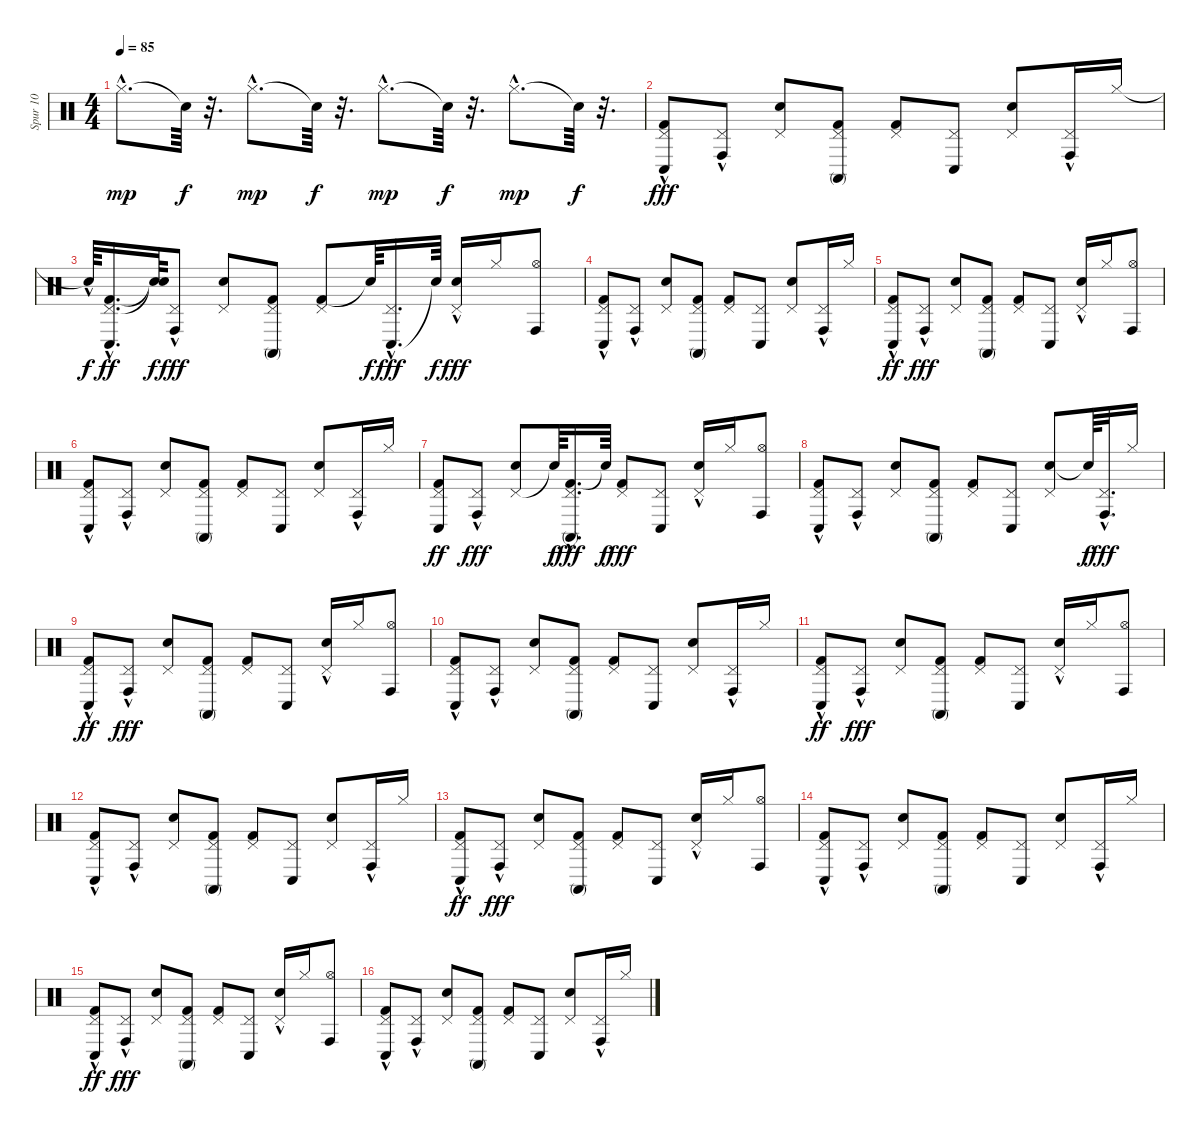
\track ("Spur 10" "Spur 10") {instrument percussion}
\staff {score}
\articulation defaults
\ts (4 4)
\tempo 85
\clef neutral
\ks c "Hi-Hat (closed)"{hac}.8{d dy mp} "Snare (hit)"{t}.64{dy f}
r.32{d} "Hi-Hat (closed)"{hac}.8{d dy mp} "Snare (hit)"{t}.64{dy f} r.32{d} "Hi-Hat (closed)"{hac}.8{d dy mp} "Snare (hit)"{t}.64{dy f} r.32{d} "Hi-Hat (closed)"{hac}.8{d dy mp} "Snare (hit)"{t}.64{dy f} r.32{d} |
("Kick (hit) 2" "Conga low (hit)" "Pedal Hi-Hat (hit)"{hac}).8{dy fff} ("Conga high (hit)" "Pedal Hi-Hat (hit)"{hac}).8 ("Snare (hit) 2" "Pedal Hi-Hat (hit)").8 ("Kick (hit) 2" "Conga high (mute)" "Pedal Hi-Hat (hit)").8 ("Kick (hit) 2" "Pedal Hi-Hat (hit)").8 ("Conga low (hit)" "Pedal Hi-Hat (hit)").8 ("Snare (hit) 2" "Pedal Hi-Hat (hit)").8 ("Conga high (hit)" "Pedal Hi-Hat (hit)"{hac}).16 "Hi-Hat (closed)".16 |
"Snare (hit)"{hac t}.64{dy f} ("Pedal Hi-Hat (hit)" "Kick (hit) 2"{hac} "Conga low (hit)"{hac}).16{d dy ff} ("Snare (hit)"{t} "Snare (hit)"{t}).64{dy f} ("Conga high (hit)" "Pedal Hi-Hat (hit)"{hac}).8{dy fff} ("Pedal Hi-Hat (hit)" "Snare (hit) 2").8 ("Kick (hit) 2" "Conga high (mute)" "Pedal Hi-Hat (hit)").8 ("Kick (hit) 2" "Pedal Hi-Hat (hit)").8 "Snare (hit)"{t}.64{dy f} ("Conga low (hit)"{hac} "Pedal Hi-Hat (hit)").16{d dy fff} "Snare (hit)"{t}.64{dy f} ("Snare (hit) 2" "Pedal Hi-Hat (hit)"{hac}).16{dy fff} "Hi-Hat (closed)".16 ("Conga high (hit)" "Hi-Hat (open)").8 |
("Kick (hit) 2" "Conga low (hit)" "Pedal Hi-Hat (hit)"{hac}).8 ("Conga high (hit)" "Pedal Hi-Hat (hit)"{hac}).8 ("Snare (hit) 2" "Pedal Hi-Hat (hit)").8 ("Kick (hit) 2" "Conga high (mute)" "Pedal Hi-Hat (hit)").8 ("Kick (hit) 2" "Pedal Hi-Hat (hit)").8 ("Conga low (hit)" "Pedal Hi-Hat (hit)").8 ("Snare (hit) 2" "Pedal Hi-Hat (hit)").8 ("Conga high (hit)" "Pedal Hi-Hat (hit)"{hac}).16 "Hi-Hat (closed)".16 |
("Pedal Hi-Hat (hit)"{hac} "Kick (hit) 2" "Conga low (hit)").8{dy ff} ("Conga high (hit)" "Pedal Hi-Hat (hit)"{hac}).8{dy fff} ("Pedal Hi-Hat (hit)" "Snare (hit) 2").8 ("Kick (hit) 2" "Conga high (mute)" "Pedal Hi-Hat (hit)").8 ("Kick (hit) 2" "Pedal Hi-Hat (hit)").8 ("Conga low (hit)" "Pedal Hi-Hat (hit)").8 ("Snare (hit) 2" "Pedal Hi-Hat (hit)"{hac}).16 "Hi-Hat (closed)".16 ("Conga high (hit)" "Hi-Hat (open)").8 |
("Kick (hit) 2" "Conga low (hit)" "Pedal Hi-Hat (hit)"{hac}).8 ("Conga high (hit)" "Pedal Hi-Hat (hit)"{hac}).8 ("Snare (hit) 2" "Pedal Hi-Hat (hit)").8 ("Kick (hit) 2" "Conga high (mute)" "Pedal Hi-Hat (hit)").8 ("Kick (hit) 2" "Pedal Hi-Hat (hit)").8 ("Conga low (hit)" "Pedal Hi-Hat (hit)").8 ("Snare (hit) 2" "Pedal Hi-Hat (hit)").8 ("Conga high (hit)" "Pedal Hi-Hat (hit)"{hac}).16 "Hi-Hat (closed)".16 |
("Pedal Hi-Hat (hit)" "Kick (hit) 2" "Conga low (hit)").8{dy ff} ("Conga high (hit)" "Pedal Hi-Hat (hit)"{hac}).8{dy fff} ("Pedal Hi-Hat (hit)" "Snare (hit) 2").8 "Snare (hit)"{t}.64{dy f} ("Kick (hit) 2" "Conga high (mute)"{hac} "Pedal Hi-Hat (hit)").16{d dy fff} "Snare (hit)"{t}.64{dy f} ("Kick (hit) 2" "Pedal Hi-Hat (hit)").8{dy fff} ("Conga low (hit)" "Pedal Hi-Hat (hit)").8 ("Snare (hit) 2" "Pedal Hi-Hat (hit)"{hac}).16 "Hi-Hat (closed)".16 ("Conga high (hit)" "Hi-Hat (open)").8 |
("Kick (hit) 2" "Conga low (hit)" "Pedal Hi-Hat (hit)"{hac}).8 ("Conga high (hit)" "Pedal Hi-Hat (hit)"{hac}).8 ("Snare (hit) 2" "Pedal Hi-Hat (hit)").8 ("Kick (hit) 2" "Conga high (mute)" "Pedal Hi-Hat (hit)").8 ("Kick (hit) 2" "Pedal Hi-Hat (hit)").8 ("Conga low (hit)" "Pedal Hi-Hat (hit)").8 ("Snare (hit) 2" "Pedal Hi-Hat (hit)").8 "Snare (hit)"{t}.64{dy f} ("Conga high (hit)"{hac} "Pedal Hi-Hat (hit)").32{d dy fff} "Hi-Hat (closed)".16 |
("Pedal Hi-Hat (hit)"{hac} "Kick (hit) 2" "Conga low (hit)").8{dy ff} ("Conga high (hit)" "Pedal Hi-Hat (hit)"{hac}).8{dy fff} ("Pedal Hi-Hat (hit)" "Snare (hit) 2").8 ("Kick (hit) 2" "Conga high (mute)" "Pedal Hi-Hat (hit)").8 ("Kick (hit) 2" "Pedal Hi-Hat (hit)").8 ("Conga low (hit)" "Pedal Hi-Hat (hit)").8 ("Snare (hit) 2" "Pedal Hi-Hat (hit)"{hac}).16 "Hi-Hat (closed)".16 ("Conga high (hit)" "Hi-Hat (open)").8 |
("Kick (hit) 2" "Conga low (hit)" "Pedal Hi-Hat (hit)"{hac}).8 ("Conga high (hit)" "Pedal Hi-Hat (hit)"{hac}).8 ("Snare (hit) 2" "Pedal Hi-Hat (hit)").8 ("Kick (hit) 2" "Conga high (mute)" "Pedal Hi-Hat (hit)").8 ("Kick (hit) 2" "Pedal Hi-Hat (hit)").8 ("Conga low (hit)" "Pedal Hi-Hat (hit)").8 ("Snare (hit) 2" "Pedal Hi-Hat (hit)").8 ("Conga high (hit)" "Pedal Hi-Hat (hit)"{hac}).16 "Hi-Hat (closed)".16 |
("Pedal Hi-Hat (hit)"{hac} "Kick (hit) 2" "Conga low (hit)").8{dy ff} ("Conga high (hit)" "Pedal Hi-Hat (hit)"{hac}).8{dy fff} ("Pedal Hi-Hat (hit)" "Snare (hit) 2").8 ("Kick (hit) 2" "Conga high (mute)" "Pedal Hi-Hat (hit)").8 ("Kick (hit) 2" "Pedal Hi-Hat (hit)").8 ("Conga low (hit)" "Pedal Hi-Hat (hit)").8 ("Snare (hit) 2" "Pedal Hi-Hat (hit)"{hac}).16 "Hi-Hat (closed)".16 ("Conga high (hit)" "Hi-Hat (open)").8 |
("Kick (hit) 2" "Conga low (hit)" "Pedal Hi-Hat (hit)"{hac}).8 ("Conga high (hit)" "Pedal Hi-Hat (hit)"{hac}).8 ("Snare (hit) 2" "Pedal Hi-Hat (hit)").8 ("Kick (hit) 2" "Conga high (mute)" "Pedal Hi-Hat (hit)").8 ("Kick (hit) 2" "Pedal Hi-Hat (hit)").8 ("Conga low (hit)" "Pedal Hi-Hat (hit)").8 ("Snare (hit) 2" "Pedal Hi-Hat (hit)").8 ("Conga high (hit)" "Pedal Hi-Hat (hit)"{hac}).16 "Hi-Hat (closed)".16 |
("Pedal Hi-Hat (hit)"{hac} "Kick (hit) 2" "Conga low (hit)").8{dy ff} ("Conga high (hit)" "Pedal Hi-Hat (hit)"{hac}).8{dy fff} ("Pedal Hi-Hat (hit)" "Snare (hit) 2").8 ("Kick (hit) 2" "Conga high (mute)" "Pedal Hi-Hat (hit)").8 ("Kick (hit) 2" "Pedal Hi-Hat (hit)").8 ("Conga low (hit)" "Pedal Hi-Hat (hit)").8 ("Snare (hit) 2" "Pedal Hi-Hat (hit)"{hac}).16 "Hi-Hat (closed)".16 ("Conga high (hit)" "Hi-Hat (open)").8 |
("Kick (hit) 2" "Conga low (hit)" "Pedal Hi-Hat (hit)"{hac}).8 ("Conga high (hit)" "Pedal Hi-Hat (hit)"{hac}).8 ("Snare (hit) 2" "Pedal Hi-Hat (hit)").8 ("Kick (hit) 2" "Conga high (mute)" "Pedal Hi-Hat (hit)").8 ("Kick (hit) 2" "Pedal Hi-Hat (hit)").8 ("Conga low (hit)" "Pedal Hi-Hat (hit)").8 ("Snare (hit) 2" "Pedal Hi-Hat (hit)").8 ("Conga high (hit)" "Pedal Hi-Hat (hit)"{hac}).16 "Hi-Hat (closed)".16 |
("Pedal Hi-Hat (hit)"{hac} "Kick (hit) 2" "Conga low (hit)").8{dy ff} ("Conga high (hit)" "Pedal Hi-Hat (hit)"{hac}).8{dy fff} ("Pedal Hi-Hat (hit)" "Snare (hit) 2").8 ("Kick (hit) 2" "Conga high (mute)" "Pedal Hi-Hat (hit)").8 ("Kick (hit) 2" "Pedal Hi-Hat (hit)").8 ("Conga low (hit)" "Pedal Hi-Hat (hit)").8 ("Snare (hit) 2" "Pedal Hi-Hat (hit)"{hac}).16 "Hi-Hat (closed)".16 ("Conga high (hit)" "Hi-Hat (open)").8 |
("Kick (hit) 2" "Conga low (hit)" "Pedal Hi-Hat (hit)"{hac}).8 ("Conga high (hit)" "Pedal Hi-Hat (hit)"{hac}).8 ("Snare (hit) 2" "Pedal Hi-Hat (hit)").8 ("Kick (hit) 2" "Conga high (mute)" "Pedal Hi-Hat (hit)").8 ("Kick (hit) 2" "Pedal Hi-Hat (hit)").8 ("Conga low (hit)" "Pedal Hi-Hat (hit)").8 ("Snare (hit) 2" "Pedal Hi-Hat (hit)").8 ("Conga high (hit)" "Pedal Hi-Hat (hit)"{hac}).16 "Hi-Hat (closed)".16
